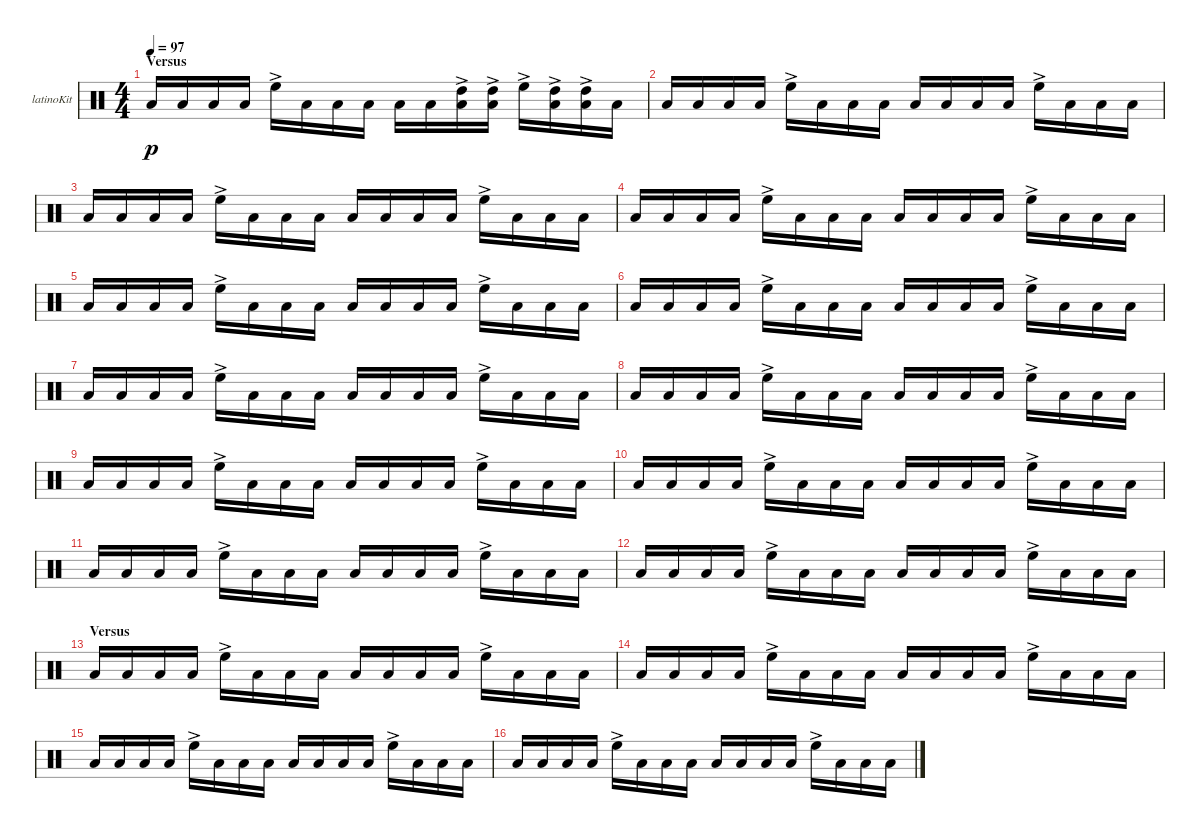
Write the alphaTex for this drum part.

\bracketExtendMode groupsimilarinstruments
\firstSystemTrackNameOrientation horizontal
\otherSystemsTrackNameOrientation horizontal
\track ("Kit-Latino" "latinoKit") {instrument percussion}
\staff {score}
\articulation defaults
\ts (4 4)
\section ("" "Versus")
\tempo 97
\clef neutral
\scale
0.333333
\ks c "Low Tom (hit)".16{dy p} "Low Tom (hit)".16 "Low Tom (hit)".16 "Low Tom (hit)".16 "High Floor Tom (hit)"{ac}.16 "Low Tom (hit)".16 "Low Tom (hit)".16 "Low Tom (hit)".16 "Low Tom (hit)".16 "Low Tom (hit)".16
("Low Tom (hit)" "High Tom (hit)"{ac}).16 ("Low Tom (hit)" "High Tom (hit)"{ac}).16 "High Floor Tom (hit)"{ac}.16 ("Low Tom (hit)" "High Tom (hit)"{ac}).16 ("Low Tom (hit)" "High Tom (hit)"{ac}).16 "Low Tom (hit)".16 |
"Low Tom (hit)".16 "Low Tom (hit)".16 "Low Tom (hit)".16 "Low Tom (hit)".16 "High Floor Tom (hit)"{ac}.16 "Low Tom (hit)".16 "Low Tom (hit)".16 "Low Tom (hit)".16 "Low Tom (hit)".16 "Low Tom (hit)".16 "Low Tom (hit)".16 "Low Tom (hit)".16 "High Floor Tom (hit)"{ac}.16 "Low Tom (hit)".16 "Low Tom (hit)".16 "Low Tom (hit)".16 |
"Low Tom (hit)".16 "Low Tom (hit)".16 "Low Tom (hit)".16 "Low Tom (hit)".16 "High Floor Tom (hit)"{ac}.16 "Low Tom (hit)".16 "Low Tom (hit)".16 "Low Tom (hit)".16 "Low Tom (hit)".16 "Low Tom (hit)".16 "Low Tom (hit)".16 "Low Tom (hit)".16 "High Floor Tom (hit)"{ac}.16 "Low Tom (hit)".16 "Low Tom (hit)".16 "Low Tom (hit)".16 |
"Low Tom (hit)".16 "Low Tom (hit)".16 "Low Tom (hit)".16 "Low Tom (hit)".16 "High Floor Tom (hit)"{ac}.16 "Low Tom (hit)".16 "Low Tom (hit)".16 "Low Tom (hit)".16 "Low Tom (hit)".16 "Low Tom (hit)".16 "Low Tom (hit)".16 "Low Tom (hit)".16 "High Floor Tom (hit)"{ac}.16 "Low Tom (hit)".16 "Low Tom (hit)".16 "Low Tom (hit)".16 |
"Low Tom (hit)".16 "Low Tom (hit)".16 "Low Tom (hit)".16 "Low Tom (hit)".16 "High Floor Tom (hit)"{ac}.16 "Low Tom (hit)".16 "Low Tom (hit)".16 "Low Tom (hit)".16 "Low Tom (hit)".16 "Low Tom (hit)".16 "Low Tom (hit)".16 "Low Tom (hit)".16 "High Floor Tom (hit)"{ac}.16 "Low Tom (hit)".16 "Low Tom (hit)".16 "Low Tom (hit)".16 |
"Low Tom (hit)".16 "Low Tom (hit)".16 "Low Tom (hit)".16 "Low Tom (hit)".16 "High Floor Tom (hit)"{ac}.16 "Low Tom (hit)".16 "Low Tom (hit)".16 "Low Tom (hit)".16 "Low Tom (hit)".16 "Low Tom (hit)".16 "Low Tom (hit)".16 "Low Tom (hit)".16 "High Floor Tom (hit)"{ac}.16 "Low Tom (hit)".16 "Low Tom (hit)".16 "Low Tom (hit)".16 |
"Low Tom (hit)".16 "Low Tom (hit)".16 "Low Tom (hit)".16 "Low Tom (hit)".16 "High Floor Tom (hit)"{ac}.16 "Low Tom (hit)".16 "Low Tom (hit)".16 "Low Tom (hit)".16 "Low Tom (hit)".16 "Low Tom (hit)".16 "Low Tom (hit)".16 "Low Tom (hit)".16 "High Floor Tom (hit)"{ac}.16 "Low Tom (hit)".16 "Low Tom (hit)".16 "Low Tom (hit)".16 |
"Low Tom (hit)".16 "Low Tom (hit)".16 "Low Tom (hit)".16 "Low Tom (hit)".16 "High Floor Tom (hit)"{ac}.16 "Low Tom (hit)".16 "Low Tom (hit)".16 "Low Tom (hit)".16 "Low Tom (hit)".16 "Low Tom (hit)".16 "Low Tom (hit)".16 "Low Tom (hit)".16 "High Floor Tom (hit)"{ac}.16 "Low Tom (hit)".16 "Low Tom (hit)".16 "Low Tom (hit)".16 |
"Low Tom (hit)".16 "Low Tom (hit)".16 "Low Tom (hit)".16 "Low Tom (hit)".16 "High Floor Tom (hit)"{ac}.16 "Low Tom (hit)".16 "Low Tom (hit)".16 "Low Tom (hit)".16 "Low Tom (hit)".16 "Low Tom (hit)".16 "Low Tom (hit)".16 "Low Tom (hit)".16 "High Floor Tom (hit)"{ac}.16 "Low Tom (hit)".16 "Low Tom (hit)".16 "Low Tom (hit)".16 |
"Low Tom (hit)".16 "Low Tom (hit)".16 "Low Tom (hit)".16 "Low Tom (hit)".16 "High Floor Tom (hit)"{ac}.16 "Low Tom (hit)".16 "Low Tom (hit)".16 "Low Tom (hit)".16 "Low Tom (hit)".16 "Low Tom (hit)".16 "Low Tom (hit)".16 "Low Tom (hit)".16 "High Floor Tom (hit)"{ac}.16 "Low Tom (hit)".16 "Low Tom (hit)".16 "Low Tom (hit)".16 |
"Low Tom (hit)".16 "Low Tom (hit)".16 "Low Tom (hit)".16 "Low Tom (hit)".16 "High Floor Tom (hit)"{ac}.16 "Low Tom (hit)".16 "Low Tom (hit)".16 "Low Tom (hit)".16 "Low Tom (hit)".16 "Low Tom (hit)".16 "Low Tom (hit)".16 "Low Tom (hit)".16 "High Floor Tom (hit)"{ac}.16 "Low Tom (hit)".16 "Low Tom (hit)".16 "Low Tom (hit)".16 |
"Low Tom (hit)".16 "Low Tom (hit)".16 "Low Tom (hit)".16 "Low Tom (hit)".16 "High Floor Tom (hit)"{ac}.16 "Low Tom (hit)".16 "Low Tom (hit)".16 "Low Tom (hit)".16 "Low Tom (hit)".16 "Low Tom (hit)".16 "Low Tom (hit)".16 "Low Tom (hit)".16 "High Floor Tom (hit)"{ac}.16 "Low Tom (hit)".16 "Low Tom (hit)".16 "Low Tom (hit)".16 |
\section ("" "Versus")
"Low Tom (hit)".16 "Low Tom (hit)".16 "Low Tom (hit)".16 "Low Tom (hit)".16 "High Floor Tom (hit)"{ac}.16 "Low Tom (hit)".16 "Low Tom (hit)".16 "Low Tom (hit)".16 "Low Tom (hit)".16 "Low Tom (hit)".16 "Low Tom (hit)".16 "Low Tom (hit)".16 "High Floor Tom (hit)"{ac}.16 "Low Tom (hit)".16 "Low Tom (hit)".16 "Low Tom (hit)".16 |
"Low Tom (hit)".16 "Low Tom (hit)".16 "Low Tom (hit)".16 "Low Tom (hit)".16 "High Floor Tom (hit)"{ac}.16 "Low Tom (hit)".16 "Low Tom (hit)".16 "Low Tom (hit)".16 "Low Tom (hit)".16 "Low Tom (hit)".16 "Low Tom (hit)".16 "Low Tom (hit)".16 "High Floor Tom (hit)"{ac}.16 "Low Tom (hit)".16 "Low Tom (hit)".16 "Low Tom (hit)".16 |
"Low Tom (hit)".16 "Low Tom (hit)".16 "Low Tom (hit)".16 "Low Tom (hit)".16 "High Floor Tom (hit)"{ac}.16 "Low Tom (hit)".16 "Low Tom (hit)".16 "Low Tom (hit)".16 "Low Tom (hit)".16 "Low Tom (hit)".16 "Low Tom (hit)".16 "Low Tom (hit)".16 "High Floor Tom (hit)"{ac}.16 "Low Tom (hit)".16 "Low Tom (hit)".16 "Low Tom (hit)".16 |
"Low Tom (hit)".16 "Low Tom (hit)".16 "Low Tom (hit)".16 "Low Tom (hit)".16 "High Floor Tom (hit)"{ac}.16 "Low Tom (hit)".16 "Low Tom (hit)".16 "Low Tom (hit)".16 "Low Tom (hit)".16 "Low Tom (hit)".16 "Low Tom (hit)".16 "Low Tom (hit)".16 "High Floor Tom (hit)"{ac}.16 "Low Tom (hit)".16 "Low Tom (hit)".16 "Low Tom (hit)".16
